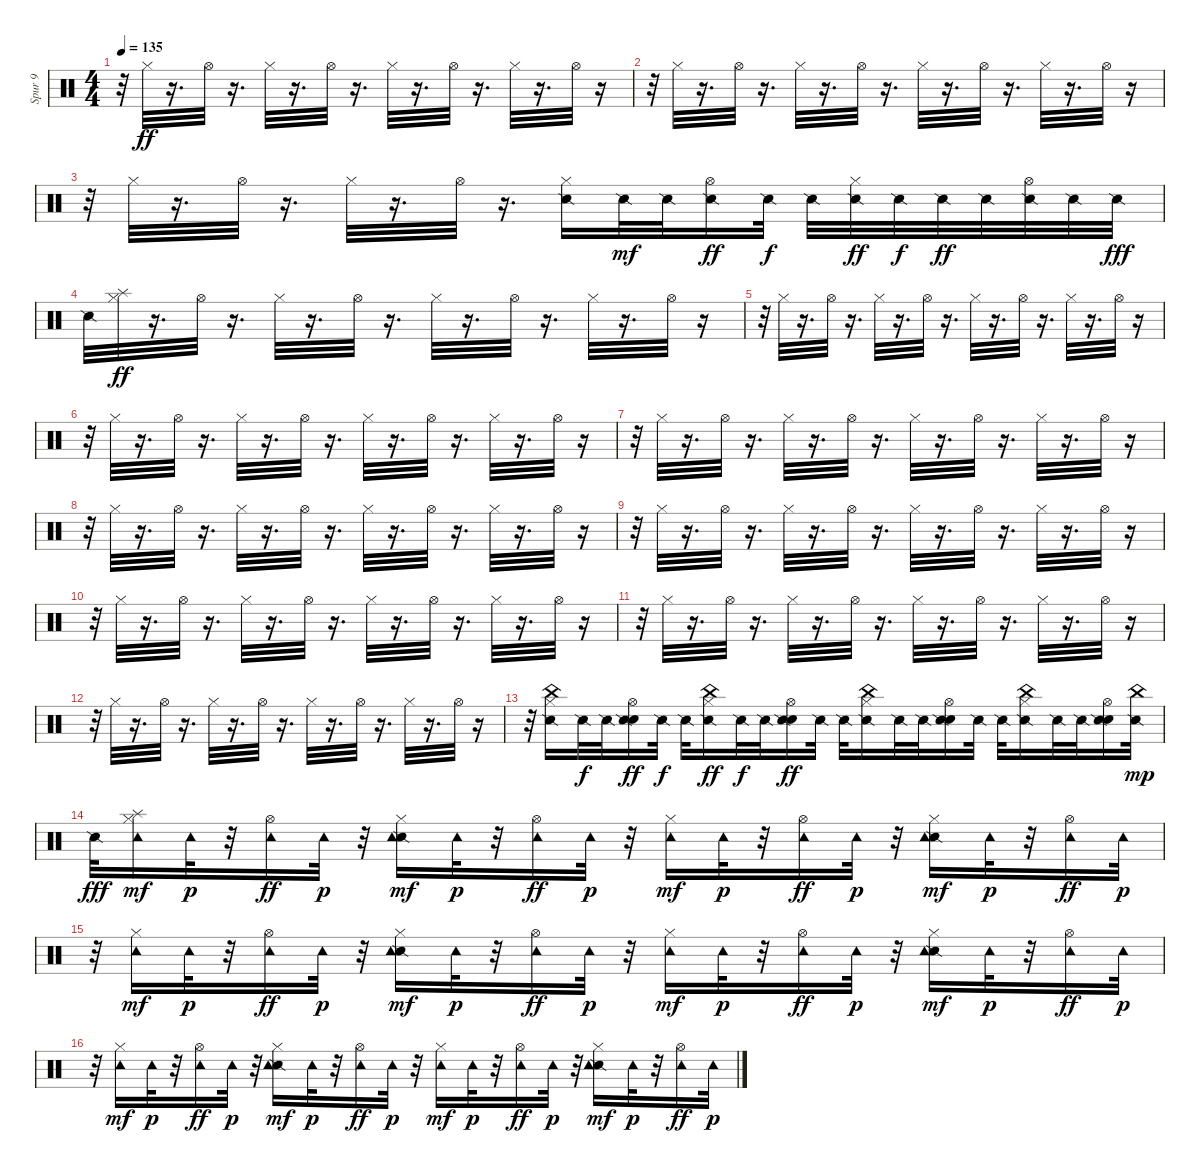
\track ("Spur 9" "Spur 9") {instrument percussion}
\staff {score}
\articulation defaults
\ts (4 4)
\tempo 135
\clef neutral
\ks c
r.32{dy ff} "Hi-Hat (closed)".32 r.16{d} "Hi-Hat (open)".32 r.16{d} "Hi-Hat (closed)".32 r.16{d} "Hi-Hat (open)".32 r.16{d} "Hi-Hat (closed)".32 r.16{d} "Hi-Hat (open)".32 r.16{d} "Hi-Hat (closed)".32 r.16{d} "Hi-Hat (open)".32 r.16 |
r.32 "Hi-Hat (closed)".32 r.16{d} "Hi-Hat (open)".32 r.16{d} "Hi-Hat (closed)".32 r.16{d} "Hi-Hat (open)".32 r.16{d} "Hi-Hat (closed)".32 r.16{d} "Hi-Hat (open)".32 r.16{d} "Hi-Hat (closed)".32 r.16{d} "Hi-Hat (open)".32 r.16 |
r.32 "Hi-Hat (closed)".32 r.16{d} "Hi-Hat (open)".32 r.16{d} "Hi-Hat (closed)".32 r.16{d} "Hi-Hat (open)".32 r.16{d} ("Snare (side stick) 2" "Hi-Hat (closed)").16 "Snare (side stick) 2".32{dy mf} "Snare (side stick) 2".32 ("Snare (side stick) 2" "Hi-Hat (open)").16{dy ff} "Snare (side stick) 2".32{dy f} "Snare (side stick) 2".32 ("Snare (side stick) 2" "Hi-Hat (closed)").32{dy ff} "Snare (side stick) 2".32{dy f} "Snare (side stick) 2".32{dy ff} "Snare (side stick) 2".32 ("Snare (side stick) 2" "Hi-Hat (open)").32 "Snare (side stick) 2".32 "Snare (side stick) 2".32{dy fff} |
"Snare (side stick) 2".32 ("Splash (hit)" "Hi-Hat (closed)").32{dy ff} r.16{d} "Hi-Hat (open)".32 r.16{d} "Hi-Hat (closed)".32 r.16{d} "Hi-Hat (open)".32 r.16{d} "Hi-Hat (closed)".32 r.16{d} "Hi-Hat (open)".32 r.16{d} "Hi-Hat (closed)".32 r.16{d} "Hi-Hat (open)".32 r.16 |
r.32 "Hi-Hat (closed)".32 r.16{d} "Hi-Hat (open)".32 r.16{d} "Hi-Hat (closed)".32 r.16{d} "Hi-Hat (open)".32 r.16{d} "Hi-Hat (closed)".32 r.16{d} "Hi-Hat (open)".32 r.16{d} "Hi-Hat (closed)".32 r.16{d} "Hi-Hat (open)".32 r.16 |
r.32 "Hi-Hat (closed)".32 r.16{d} "Hi-Hat (open)".32 r.16{d} "Hi-Hat (closed)".32 r.16{d} "Hi-Hat (open)".32 r.16{d} "Hi-Hat (closed)".32 r.16{d} "Hi-Hat (open)".32 r.16{d} "Hi-Hat (closed)".32 r.16{d} "Hi-Hat (open)".32 r.16 |
r.32 "Hi-Hat (closed)".32 r.16{d} "Hi-Hat (open)".32 r.16{d} "Hi-Hat (closed)".32 r.16{d} "Hi-Hat (open)".32 r.16{d} "Hi-Hat (closed)".32 r.16{d} "Hi-Hat (open)".32 r.16{d} "Hi-Hat (closed)".32 r.16{d} "Hi-Hat (open)".32 r.16 |
r.32 "Hi-Hat (closed)".32 r.16{d} "Hi-Hat (open)".32 r.16{d} "Hi-Hat (closed)".32 r.16{d} "Hi-Hat (open)".32 r.16{d} "Hi-Hat (closed)".32 r.16{d} "Hi-Hat (open)".32 r.16{d} "Hi-Hat (closed)".32 r.16{d} "Hi-Hat (open)".32 r.16 |
r.32 "Hi-Hat (closed)".32 r.16{d} "Hi-Hat (open)".32 r.16{d} "Hi-Hat (closed)".32 r.16{d} "Hi-Hat (open)".32 r.16{d} "Hi-Hat (closed)".32 r.16{d} "Hi-Hat (open)".32 r.16{d} "Hi-Hat (closed)".32 r.16{d} "Hi-Hat (open)".32 r.16 |
r.32 "Hi-Hat (closed)".32 r.16{d} "Hi-Hat (open)".32 r.16{d} "Hi-Hat (closed)".32 r.16{d} "Hi-Hat (open)".32 r.16{d} "Hi-Hat (closed)".32 r.16{d} "Hi-Hat (open)".32 r.16{d} "Hi-Hat (closed)".32 r.16{d} "Hi-Hat (open)".32 r.16 |
r.32 "Hi-Hat (closed)".32 r.16{d} "Hi-Hat (open)".32 r.16{d} "Hi-Hat (closed)".32 r.16{d} "Hi-Hat (open)".32 r.16{d} "Hi-Hat (closed)".32 r.16{d} "Hi-Hat (open)".32 r.16{d} "Hi-Hat (closed)".32 r.16{d} "Hi-Hat (open)".32 r.16 |
r.32 "Hi-Hat (closed)".32 r.16{d} "Hi-Hat (open)".32 r.16{d} "Hi-Hat (closed)".32 r.16{d} "Hi-Hat (open)".32 r.16{d} "Hi-Hat (closed)".32 r.16{d} "Hi-Hat (open)".32 r.16{d} "Hi-Hat (closed)".32 r.16{d} "Hi-Hat (open)".32 r.16 |
r.32 ("Snare (side stick) 2" "Hi-Hat (closed)" "China (hit)").16 "Snare (side stick) 2".32{dy f} "Snare (side stick) 2".32 ("Snare (hit)" "Snare (side stick) 2" "Hi-Hat (open)").16{dy ff} "Snare (side stick) 2".32{dy f} "Snare (side stick) 2".32 ("Snare (side stick) 2" "Hi-Hat (closed)" "China (hit)").16{dy ff} "Snare (side stick) 2".32{dy f} "Snare (side stick) 2".32 ("Snare (hit)" "Snare (side stick) 2" "Hi-Hat (open)").16{dy ff} "Snare (side stick) 2".32 "Snare (side stick) 2".32 ("Snare (side stick) 2" "Hi-Hat (closed)" "China (hit)").16 "Snare (side stick) 2".32 "Snare (side stick) 2".32 ("Snare (hit)" "Snare (side stick) 2" "Hi-Hat (open)").16 "Snare (side stick) 2".32 "Snare (side stick) 2".32 ("Snare (side stick) 2" "Hi-Hat (closed)" "China (hit)").16 "Snare (side stick) 2".32 "Snare (side stick) 2".32 ("Snare (hit)" "Snare (side stick) 2" "Hi-Hat (open)").16 ("Snare (side stick) 2" "China (hit)").32{dy mp} |
"Snare (side stick) 2".32{dy fff} ("Splash (hit)" "Hi-Hat (closed)" "Tambourine (hit)").16{dy mf} "Tambourine (hit)".32{dy p} r.32 ("Hi-Hat (open)" "Tambourine (hit)").16{dy ff} "Tambourine (hit)".32{dy p} r.32 ("Snare (side stick) 2" "Hi-Hat (closed)" "Tambourine (hit)").16{dy mf} "Tambourine (hit)".32{dy p} r.32 ("Hi-Hat (open)" "Tambourine (hit)").16{dy ff} "Tambourine (hit)".32{dy p} r.32 ("Hi-Hat (closed)" "Tambourine (hit)").16{dy mf} "Tambourine (hit)".32{dy p} r.32 ("Hi-Hat (open)" "Tambourine (hit)").16{dy ff} "Tambourine (hit)".32{dy p} r.32 ("Snare (side stick) 2" "Hi-Hat (closed)" "Tambourine (hit)").16{dy mf} "Tambourine (hit)".32{dy p} r.32 ("Hi-Hat (open)" "Tambourine (hit)").16{dy ff} "Tambourine (hit)".32{dy p} |
r.32 ("Hi-Hat (closed)" "Tambourine (hit)").16{dy mf} "Tambourine (hit)".32{dy p} r.32 ("Hi-Hat (open)" "Tambourine (hit)").16{dy ff} "Tambourine (hit)".32{dy p} r.32 ("Snare (side stick) 2" "Hi-Hat (closed)" "Tambourine (hit)").16{dy mf} "Tambourine (hit)".32{dy p} r.32 ("Hi-Hat (open)" "Tambourine (hit)").16{dy ff} "Tambourine (hit)".32{dy p} r.32 ("Hi-Hat (closed)" "Tambourine (hit)").16{dy mf} "Tambourine (hit)".32{dy p} r.32 ("Hi-Hat (open)" "Tambourine (hit)").16{dy ff} "Tambourine (hit)".32{dy p} r.32 ("Snare (side stick) 2" "Hi-Hat (closed)" "Tambourine (hit)").16{dy mf} "Tambourine (hit)".32{dy p} r.32 ("Hi-Hat (open)" "Tambourine (hit)").16{dy ff} "Tambourine (hit)".32{dy p} |
r.32 ("Hi-Hat (closed)" "Tambourine (hit)").16{dy mf} "Tambourine (hit)".32{dy p} r.32 ("Hi-Hat (open)" "Tambourine (hit)").16{dy ff} "Tambourine (hit)".32{dy p} r.32 ("Snare (side stick) 2" "Hi-Hat (closed)" "Tambourine (hit)").16{dy mf} "Tambourine (hit)".32{dy p} r.32 ("Hi-Hat (open)" "Tambourine (hit)").16{dy ff} "Tambourine (hit)".32{dy p} r.32 ("Hi-Hat (closed)" "Tambourine (hit)").16{dy mf} "Tambourine (hit)".32{dy p} r.32 ("Hi-Hat (open)" "Tambourine (hit)").16{dy ff} "Tambourine (hit)".32{dy p} r.32 ("Snare (side stick) 2" "Hi-Hat (closed)" "Tambourine (hit)").16{dy mf} "Tambourine (hit)".32{dy p} r.32 ("Hi-Hat (open)" "Tambourine (hit)").16{dy ff} "Tambourine (hit)".32{dy p}
